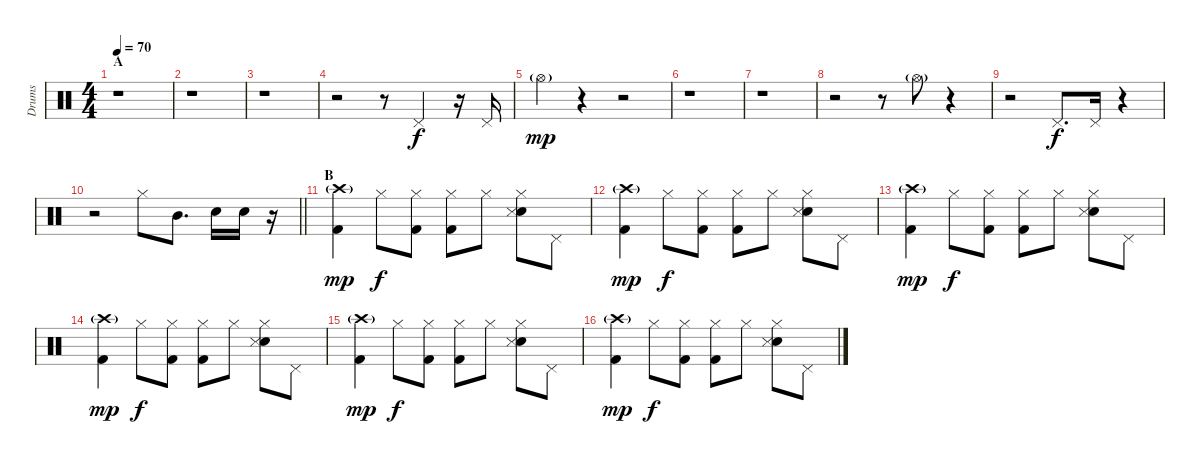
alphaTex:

\track ("Drums" "Drums") {instrument percussion}
\staff {score}
\articulation defaults
\ts (4 4)
\section ("" "A")
\tempo 70
\clef neutral
\ks c
r.1{dy f} |
r.1 |
r.1 |
r.2 r.8 "Pedal Hi-Hat (hit)".4 r.16 "Pedal Hi-Hat (hit)".16 |
"Hi-Hat (open)"{g}.4{dy mp} r.4 r.2 |
r.1 |
r.1 |
r.2 r.8 "Hi-Hat (open)"{g}.8 r.4 |
r.2 "Pedal Hi-Hat (hit)".8{d dy f} "Pedal Hi-Hat (hit)".16 r.4 |
\barLineRight lightlight
r.2 "Hi-Hat (closed)".8 "Mid Tom (hit)".8{d} "Electric Snare (hit)".16 "Electric Snare (hit)".16 r.16 |
\section ("" "B")
("Crash high (hit)"{g} "Kick (hit) 2").4{dy mp} "Hi-Hat (closed)".8{dy f} ("Hi-Hat (closed)" "Kick (hit) 2").8 ("Hi-Hat (closed)" "Kick (hit) 2").8 "Hi-Hat (closed)".8 ("Hi-Hat (closed)" "Electric Snare (hit)" "Snare (side stick) 3").8 "Pedal Hi-Hat (hit)".8 |
("Crash high (hit)"{g} "Kick (hit) 2").4{dy mp} "Hi-Hat (closed)".8{dy f} ("Hi-Hat (closed)" "Kick (hit) 2").8 ("Hi-Hat (closed)" "Kick (hit) 2").8 "Hi-Hat (closed)".8 ("Hi-Hat (closed)" "Electric Snare (hit)" "Snare (side stick) 3").8 "Pedal Hi-Hat (hit)".8 |
("Crash high (hit)"{g} "Kick (hit) 2").4{dy mp} "Hi-Hat (closed)".8{dy f} ("Hi-Hat (closed)" "Kick (hit) 2").8 ("Hi-Hat (closed)" "Kick (hit) 2").8 "Hi-Hat (closed)".8 ("Hi-Hat (closed)" "Electric Snare (hit)" "Snare (side stick) 3").8 "Pedal Hi-Hat (hit)".8 |
("Crash high (hit)"{g} "Kick (hit) 2").4{dy mp} "Hi-Hat (closed)".8{dy f} ("Hi-Hat (closed)" "Kick (hit) 2").8 ("Hi-Hat (closed)" "Kick (hit) 2").8 "Hi-Hat (closed)".8 ("Hi-Hat (closed)" "Electric Snare (hit)" "Snare (side stick) 3").8 "Pedal Hi-Hat (hit)".8 |
("Crash high (hit)"{g} "Kick (hit) 2").4{dy mp} "Hi-Hat (closed)".8{dy f} ("Hi-Hat (closed)" "Kick (hit) 2").8 ("Hi-Hat (closed)" "Kick (hit) 2").8 "Hi-Hat (closed)".8 ("Hi-Hat (closed)" "Electric Snare (hit)" "Snare (side stick) 3").8 "Pedal Hi-Hat (hit)".8 |
("Crash high (hit)"{g} "Kick (hit) 2").4{dy mp} "Hi-Hat (closed)".8{dy f} ("Hi-Hat (closed)" "Kick (hit) 2").8 ("Hi-Hat (closed)" "Kick (hit) 2").8 "Hi-Hat (closed)".8 ("Hi-Hat (closed)" "Electric Snare (hit)" "Snare (side stick) 3").8 "Pedal Hi-Hat (hit)".8
